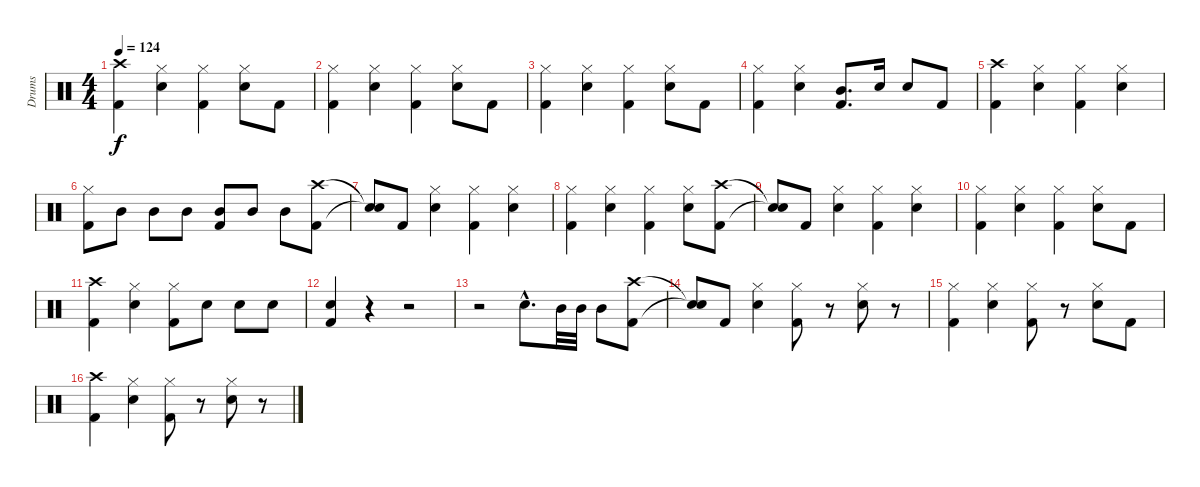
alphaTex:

\track ("Drums" "Drums") {instrument percussion}
\staff {score}
\articulation defaults
\ts (4 4)
\tempo 124
\clef neutral
\ks c
("Crash high (hit)" "Kick (hit) 2").4{dy f} ("Hi-Hat (closed)" "Snare (hit) 2").4 ("Hi-Hat (closed)" "Kick (hit) 2").4 ("Hi-Hat (closed)" "Snare (hit) 2").8 "Kick (hit) 2".8 |
("Hi-Hat (closed)" "Kick (hit) 2").4 ("Hi-Hat (closed)" "Snare (hit) 2").4 ("Hi-Hat (closed)" "Kick (hit) 2").4 ("Hi-Hat (closed)" "Snare (hit) 2").8 "Kick (hit) 2".8 |
("Hi-Hat (closed)" "Kick (hit) 2").4 ("Hi-Hat (closed)" "Snare (hit) 2").4 ("Hi-Hat (closed)" "Kick (hit) 2").4 ("Hi-Hat (closed)" "Snare (hit) 2").8 "Kick (hit) 2".8 |
("Hi-Hat (closed)" "Kick (hit) 2").4 ("Hi-Hat (closed)" "Snare (hit) 2").4 ("Mid Tom (hit)" "Kick (hit) 2").8{d} "Snare (hit) 2".16 "Snare (hit) 2".8 "Kick (hit) 2".8 |
("Crash high (hit)" "Kick (hit) 2").4 ("Hi-Hat (closed)" "Snare (hit) 2").4 ("Hi-Hat (closed)" "Kick (hit) 2").4 ("Hi-Hat (closed)" "Snare (hit) 2").4 |
("Hi-Hat (closed)" "Kick (hit) 2").8 "Mid Tom (hit)".8 "Mid Tom (hit)".8 "Mid Tom (hit)".8 ("Mid Tom (hit)" "Kick (hit) 2").8 "Mid Tom (hit)".8 "Mid Tom (hit)".8 ("Crash high (hit)" "Kick (hit) 2").8 |
("Snare (hit)"{t} "Snare (hit)"{t}).8 "Kick (hit) 2".8 ("Hi-Hat (closed)" "Snare (hit) 2").4 ("Hi-Hat (closed)" "Kick (hit) 2").4 ("Hi-Hat (closed)" "Snare (hit) 2").4 |
("Hi-Hat (closed)" "Kick (hit) 2").4 ("Hi-Hat (closed)" "Snare (hit) 2").4 ("Hi-Hat (closed)" "Kick (hit) 2").4 ("Hi-Hat (closed)" "Snare (hit) 2").8 ("Crash high (hit)" "Kick (hit) 2").8 |
("Snare (hit)"{t} "Snare (hit)"{t}).8 "Kick (hit) 2".8 ("Hi-Hat (closed)" "Snare (hit) 2").4 ("Hi-Hat (closed)" "Kick (hit) 2").4 ("Hi-Hat (closed)" "Snare (hit) 2").4 |
("Hi-Hat (closed)" "Kick (hit) 2").4 ("Hi-Hat (closed)" "Snare (hit) 2").4 ("Hi-Hat (closed)" "Kick (hit) 2").4 ("Hi-Hat (closed)" "Snare (hit) 2").8 "Kick (hit) 2".8 |
("Crash high (hit)" "Kick (hit) 2").4 ("Hi-Hat (closed)" "Snare (hit) 2").4 ("Hi-Hat (closed)" "Kick (hit) 2").8 "Snare (hit) 2".8 "Snare (hit) 2".8 "Snare (hit) 2".8 |
("Snare (hit) 2" "Kick (hit) 2").4 r.4 r.2 |
r.2 "Snare (hit) 2"{hac}.8{d} "Mid Tom (hit)".32 "Mid Tom (hit)".32 "Mid Tom (hit)".8 ("Crash high (hit)" "Kick (hit) 2").8 |
("Snare (hit)"{t} "Snare (hit)"{t}).8 "Kick (hit) 2".8 ("Hi-Hat (closed)" "Snare (hit) 2").4 ("Hi-Hat (closed)" "Kick (hit) 2").8 r.8 ("Hi-Hat (closed)" "Snare (hit) 2").8 r.8 |
("Hi-Hat (closed)" "Kick (hit) 2").4 ("Hi-Hat (closed)" "Snare (hit) 2").4 ("Hi-Hat (closed)" "Kick (hit) 2").8 r.8 ("Hi-Hat (closed)" "Snare (hit) 2").8 "Kick (hit) 2".8 |
("Crash high (hit)" "Kick (hit) 2").4 ("Hi-Hat (closed)" "Snare (hit) 2").4 ("Hi-Hat (closed)" "Kick (hit) 2").8 r.8 ("Hi-Hat (closed)" "Snare (hit) 2").8 r.8
